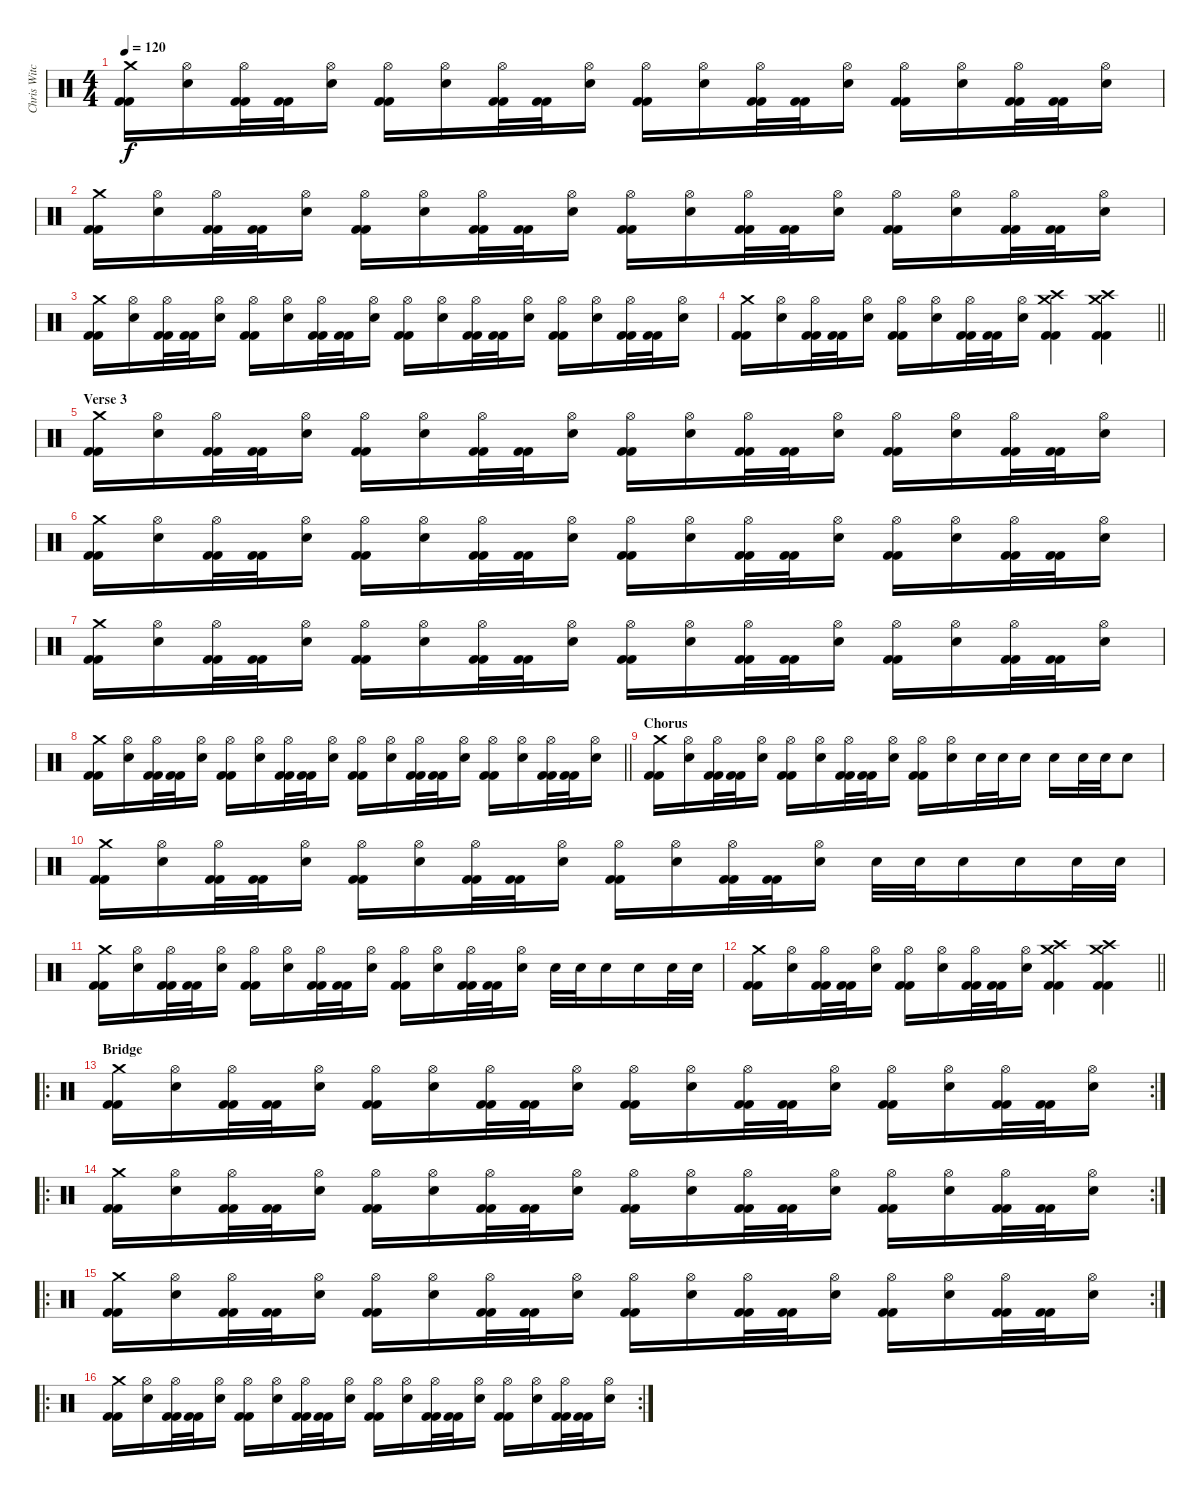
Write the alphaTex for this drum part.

\track ("Chris Witchhunter" "Chris Witc") {instrument percussion}
\staff {score}
\articulation defaults
\ts (4 4)
\tempo 120
\clef neutral
\ks c
("Crash medium (hit)" "Kick (hit) 2" "Kick (hit) 2").16{dy f} ("Hi-Hat (open)" "Snare (hit) 2").16 ("Hi-Hat (open)" "Kick (hit) 2" "Kick (hit) 2").32 ("Kick (hit) 2" "Kick (hit) 2").32 ("Hi-Hat (open)" "Snare (hit) 2").16 ("Hi-Hat (open)" "Kick (hit) 2" "Kick (hit) 2").16 ("Hi-Hat (open)" "Snare (hit) 2").16 ("Hi-Hat (open)" "Kick (hit) 2" "Kick (hit) 2").32 ("Kick (hit) 2" "Kick (hit) 2").32 ("Hi-Hat (open)" "Snare (hit) 2").16 ("Hi-Hat (open)" "Kick (hit) 2" "Kick (hit) 2").16 ("Hi-Hat (open)" "Snare (hit) 2").16 ("Hi-Hat (open)" "Kick (hit) 2" "Kick (hit) 2").32 ("Kick (hit) 2" "Kick (hit) 2").32 ("Hi-Hat (open)" "Snare (hit) 2").16 ("Hi-Hat (open)" "Kick (hit) 2" "Kick (hit) 2").16 ("Hi-Hat (open)" "Snare (hit) 2").16 ("Hi-Hat (open)" "Kick (hit) 2" "Kick (hit) 2").32 ("Kick (hit) 2" "Kick (hit) 2").32 ("Hi-Hat (open)" "Snare (hit) 2").16 |
("Crash medium (hit)" "Kick (hit) 2" "Kick (hit) 2").16 ("Hi-Hat (open)" "Snare (hit) 2").16 ("Hi-Hat (open)" "Kick (hit) 2" "Kick (hit) 2").32 ("Kick (hit) 2" "Kick (hit) 2").32 ("Hi-Hat (open)" "Snare (hit) 2").16 ("Hi-Hat (open)" "Kick (hit) 2" "Kick (hit) 2").16 ("Hi-Hat (open)" "Snare (hit) 2").16 ("Hi-Hat (open)" "Kick (hit) 2" "Kick (hit) 2").32 ("Kick (hit) 2" "Kick (hit) 2").32 ("Hi-Hat (open)" "Snare (hit) 2").16 ("Hi-Hat (open)" "Kick (hit) 2" "Kick (hit) 2").16 ("Hi-Hat (open)" "Snare (hit) 2").16 ("Hi-Hat (open)" "Kick (hit) 2" "Kick (hit) 2").32 ("Kick (hit) 2" "Kick (hit) 2").32 ("Hi-Hat (open)" "Snare (hit) 2").16 ("Hi-Hat (open)" "Kick (hit) 2" "Kick (hit) 2").16 ("Hi-Hat (open)" "Snare (hit) 2").16 ("Hi-Hat (open)" "Kick (hit) 2" "Kick (hit) 2").32 ("Kick (hit) 2" "Kick (hit) 2").32 ("Hi-Hat (open)" "Snare (hit) 2").16 |
("Crash medium (hit)" "Kick (hit) 2" "Kick (hit) 2").16 ("Hi-Hat (open)" "Snare (hit) 2").16 ("Hi-Hat (open)" "Kick (hit) 2" "Kick (hit) 2").32 ("Kick (hit) 2" "Kick (hit) 2").32 ("Hi-Hat (open)" "Snare (hit) 2").16 ("Hi-Hat (open)" "Kick (hit) 2" "Kick (hit) 2").16 ("Hi-Hat (open)" "Snare (hit) 2").16 ("Hi-Hat (open)" "Kick (hit) 2" "Kick (hit) 2").32 ("Kick (hit) 2" "Kick (hit) 2").32 ("Hi-Hat (open)" "Snare (hit) 2").16 ("Hi-Hat (open)" "Kick (hit) 2" "Kick (hit) 2").16 ("Hi-Hat (open)" "Snare (hit) 2").16 ("Hi-Hat (open)" "Kick (hit) 2" "Kick (hit) 2").32 ("Kick (hit) 2" "Kick (hit) 2").32 ("Hi-Hat (open)" "Snare (hit) 2").16 ("Hi-Hat (open)" "Kick (hit) 2" "Kick (hit) 2").16 ("Hi-Hat (open)" "Snare (hit) 2").16 ("Hi-Hat (open)" "Kick (hit) 2" "Kick (hit) 2").32 ("Kick (hit) 2" "Kick (hit) 2").32 ("Hi-Hat (open)" "Snare (hit) 2").16 |
\barLineRight lightlight
("Crash medium (hit)" "Kick (hit) 2" "Kick (hit) 2").16 ("Hi-Hat (open)" "Snare (hit) 2").16 ("Hi-Hat (open)" "Kick (hit) 2" "Kick (hit) 2").32 ("Kick (hit) 2" "Kick (hit) 2").32 ("Hi-Hat (open)" "Snare (hit) 2").16 ("Hi-Hat (open)" "Kick (hit) 2" "Kick (hit) 2").16 ("Hi-Hat (open)" "Snare (hit) 2").16 ("Hi-Hat (open)" "Kick (hit) 2" "Kick (hit) 2").32 ("Kick (hit) 2" "Kick (hit) 2").32 ("Hi-Hat (open)" "Snare (hit) 2").16 ("Crash high (hit)" "Crash medium (hit)" "Kick (hit) 2" "Kick (hit) 2").4 ("Crash high (hit)" "Crash medium (hit)" "Kick (hit) 2" "Kick (hit) 2").4 |
\section ("" "Verse 3")
("Crash medium (hit)" "Kick (hit) 2" "Kick (hit) 2").16 ("Hi-Hat (open)" "Snare (hit) 2").16 ("Hi-Hat (open)" "Kick (hit) 2" "Kick (hit) 2").32 ("Kick (hit) 2" "Kick (hit) 2").32 ("Hi-Hat (open)" "Snare (hit) 2").16 ("Hi-Hat (open)" "Kick (hit) 2" "Kick (hit) 2").16 ("Hi-Hat (open)" "Snare (hit) 2").16 ("Hi-Hat (open)" "Kick (hit) 2" "Kick (hit) 2").32 ("Kick (hit) 2" "Kick (hit) 2").32 ("Hi-Hat (open)" "Snare (hit) 2").16 ("Hi-Hat (open)" "Kick (hit) 2" "Kick (hit) 2").16 ("Hi-Hat (open)" "Snare (hit) 2").16 ("Hi-Hat (open)" "Kick (hit) 2" "Kick (hit) 2").32 ("Kick (hit) 2" "Kick (hit) 2").32 ("Hi-Hat (open)" "Snare (hit) 2").16 ("Hi-Hat (open)" "Kick (hit) 2" "Kick (hit) 2").16 ("Hi-Hat (open)" "Snare (hit) 2").16 ("Hi-Hat (open)" "Kick (hit) 2" "Kick (hit) 2").32 ("Kick (hit) 2" "Kick (hit) 2").32 ("Hi-Hat (open)" "Snare (hit) 2").16 |
("Crash medium (hit)" "Kick (hit) 2" "Kick (hit) 2").16 ("Hi-Hat (open)" "Snare (hit) 2").16 ("Hi-Hat (open)" "Kick (hit) 2" "Kick (hit) 2").32 ("Kick (hit) 2" "Kick (hit) 2").32 ("Hi-Hat (open)" "Snare (hit) 2").16 ("Hi-Hat (open)" "Kick (hit) 2" "Kick (hit) 2").16 ("Hi-Hat (open)" "Snare (hit) 2").16 ("Hi-Hat (open)" "Kick (hit) 2" "Kick (hit) 2").32 ("Kick (hit) 2" "Kick (hit) 2").32 ("Hi-Hat (open)" "Snare (hit) 2").16 ("Hi-Hat (open)" "Kick (hit) 2" "Kick (hit) 2").16 ("Hi-Hat (open)" "Snare (hit) 2").16 ("Hi-Hat (open)" "Kick (hit) 2" "Kick (hit) 2").32 ("Kick (hit) 2" "Kick (hit) 2").32 ("Hi-Hat (open)" "Snare (hit) 2").16 ("Hi-Hat (open)" "Kick (hit) 2" "Kick (hit) 2").16 ("Hi-Hat (open)" "Snare (hit) 2").16 ("Hi-Hat (open)" "Kick (hit) 2" "Kick (hit) 2").32 ("Kick (hit) 2" "Kick (hit) 2").32 ("Hi-Hat (open)" "Snare (hit) 2").16 |
("Crash medium (hit)" "Kick (hit) 2" "Kick (hit) 2").16 ("Hi-Hat (open)" "Snare (hit) 2").16 ("Hi-Hat (open)" "Kick (hit) 2" "Kick (hit) 2").32 ("Kick (hit) 2" "Kick (hit) 2").32 ("Hi-Hat (open)" "Snare (hit) 2").16 ("Hi-Hat (open)" "Kick (hit) 2" "Kick (hit) 2").16 ("Hi-Hat (open)" "Snare (hit) 2").16 ("Hi-Hat (open)" "Kick (hit) 2" "Kick (hit) 2").32 ("Kick (hit) 2" "Kick (hit) 2").32 ("Hi-Hat (open)" "Snare (hit) 2").16 ("Hi-Hat (open)" "Kick (hit) 2" "Kick (hit) 2").16 ("Hi-Hat (open)" "Snare (hit) 2").16 ("Hi-Hat (open)" "Kick (hit) 2" "Kick (hit) 2").32 ("Kick (hit) 2" "Kick (hit) 2").32 ("Hi-Hat (open)" "Snare (hit) 2").16 ("Hi-Hat (open)" "Kick (hit) 2" "Kick (hit) 2").16 ("Hi-Hat (open)" "Snare (hit) 2").16 ("Hi-Hat (open)" "Kick (hit) 2" "Kick (hit) 2").32 ("Kick (hit) 2" "Kick (hit) 2").32 ("Hi-Hat (open)" "Snare (hit) 2").16 |
\barLineRight lightlight
("Crash medium (hit)" "Kick (hit) 2" "Kick (hit) 2").16 ("Hi-Hat (open)" "Snare (hit) 2").16 ("Hi-Hat (open)" "Kick (hit) 2" "Kick (hit) 2").32 ("Kick (hit) 2" "Kick (hit) 2").32 ("Hi-Hat (open)" "Snare (hit) 2").16 ("Hi-Hat (open)" "Kick (hit) 2" "Kick (hit) 2").16 ("Hi-Hat (open)" "Snare (hit) 2").16 ("Hi-Hat (open)" "Kick (hit) 2" "Kick (hit) 2").32 ("Kick (hit) 2" "Kick (hit) 2").32 ("Hi-Hat (open)" "Snare (hit) 2").16 ("Hi-Hat (open)" "Kick (hit) 2" "Kick (hit) 2").16 ("Hi-Hat (open)" "Snare (hit) 2").16 ("Hi-Hat (open)" "Kick (hit) 2" "Kick (hit) 2").32 ("Kick (hit) 2" "Kick (hit) 2").32 ("Hi-Hat (open)" "Snare (hit) 2").16 ("Hi-Hat (open)" "Kick (hit) 2" "Kick (hit) 2").16 ("Hi-Hat (open)" "Snare (hit) 2").16 ("Hi-Hat (open)" "Kick (hit) 2" "Kick (hit) 2").32 ("Kick (hit) 2" "Kick (hit) 2").32 ("Hi-Hat (open)" "Snare (hit) 2").16 |
\section ("" "Chorus")
("Crash medium (hit)" "Kick (hit) 2" "Kick (hit) 2").16 ("Hi-Hat (open)" "Snare (hit) 2").16 ("Hi-Hat (open)" "Kick (hit) 2" "Kick (hit) 2").32 ("Kick (hit) 2" "Kick (hit) 2").32 ("Hi-Hat (open)" "Snare (hit) 2").16 ("Hi-Hat (open)" "Kick (hit) 2" "Kick (hit) 2").16 ("Hi-Hat (open)" "Snare (hit) 2").16 ("Hi-Hat (open)" "Kick (hit) 2" "Kick (hit) 2").32 ("Kick (hit) 2" "Kick (hit) 2").32 ("Hi-Hat (open)" "Snare (hit) 2").16 ("Hi-Hat (open)" "Kick (hit) 2" "Kick (hit) 2").16 ("Hi-Hat (open)" "Snare (hit) 2").16 "Snare (hit) 2".32 "Snare (hit) 2".32 "Snare (hit) 2".16 "Snare (hit) 2".16 "Snare (hit) 2".32 "Snare (hit) 2".32 "Snare (hit) 2".8 |
("Crash medium (hit)" "Kick (hit) 2" "Kick (hit) 2").16 ("Hi-Hat (open)" "Snare (hit) 2").16 ("Hi-Hat (open)" "Kick (hit) 2" "Kick (hit) 2").32 ("Kick (hit) 2" "Kick (hit) 2").32 ("Hi-Hat (open)" "Snare (hit) 2").16 ("Hi-Hat (open)" "Kick (hit) 2" "Kick (hit) 2").16 ("Hi-Hat (open)" "Snare (hit) 2").16 ("Hi-Hat (open)" "Kick (hit) 2" "Kick (hit) 2").32 ("Kick (hit) 2" "Kick (hit) 2").32 ("Hi-Hat (open)" "Snare (hit) 2").16 ("Hi-Hat (open)" "Kick (hit) 2" "Kick (hit) 2").16 ("Hi-Hat (open)" "Snare (hit) 2").16 ("Hi-Hat (open)" "Kick (hit) 2" "Kick (hit) 2").32 ("Kick (hit) 2" "Kick (hit) 2").32 ("Hi-Hat (open)" "Snare (hit) 2").16 "Snare (hit) 2".32 "Snare (hit) 2".32 "Snare (hit) 2".16 "Snare (hit) 2".16 "Snare (hit) 2".32 "Snare (hit) 2".32 |
("Crash medium (hit)" "Kick (hit) 2" "Kick (hit) 2").16 ("Hi-Hat (open)" "Snare (hit) 2").16 ("Hi-Hat (open)" "Kick (hit) 2" "Kick (hit) 2").32 ("Kick (hit) 2" "Kick (hit) 2").32 ("Hi-Hat (open)" "Snare (hit) 2").16 ("Hi-Hat (open)" "Kick (hit) 2" "Kick (hit) 2").16 ("Hi-Hat (open)" "Snare (hit) 2").16 ("Hi-Hat (open)" "Kick (hit) 2" "Kick (hit) 2").32 ("Kick (hit) 2" "Kick (hit) 2").32 ("Hi-Hat (open)" "Snare (hit) 2").16 ("Hi-Hat (open)" "Kick (hit) 2" "Kick (hit) 2").16 ("Hi-Hat (open)" "Snare (hit) 2").16 ("Hi-Hat (open)" "Kick (hit) 2" "Kick (hit) 2").32 ("Kick (hit) 2" "Kick (hit) 2").32 ("Hi-Hat (open)" "Snare (hit) 2").16 "Snare (hit) 2".32 "Snare (hit) 2".32 "Snare (hit) 2".16 "Snare (hit) 2".16 "Snare (hit) 2".32 "Snare (hit) 2".32 |
\barLineRight lightlight
("Crash medium (hit)" "Kick (hit) 2" "Kick (hit) 2").16 ("Hi-Hat (open)" "Snare (hit) 2").16 ("Hi-Hat (open)" "Kick (hit) 2" "Kick (hit) 2").32 ("Kick (hit) 2" "Kick (hit) 2").32 ("Hi-Hat (open)" "Snare (hit) 2").16 ("Hi-Hat (open)" "Kick (hit) 2" "Kick (hit) 2").16 ("Hi-Hat (open)" "Snare (hit) 2").16 ("Hi-Hat (open)" "Kick (hit) 2" "Kick (hit) 2").32 ("Kick (hit) 2" "Kick (hit) 2").32 ("Hi-Hat (open)" "Snare (hit) 2").16 ("Crash high (hit)" "Crash medium (hit)" "Kick (hit) 2" "Kick (hit) 2").4 ("Crash high (hit)" "Crash medium (hit)" "Kick (hit) 2" "Kick (hit) 2").4 |
\ro
\rc 2
\section ("" "Bridge")
("Crash medium (hit)" "Kick (hit) 2" "Kick (hit) 2").16 ("Hi-Hat (open)" "Snare (hit) 2").16 ("Hi-Hat (open)" "Kick (hit) 2" "Kick (hit) 2").32 ("Kick (hit) 2" "Kick (hit) 2").32 ("Hi-Hat (open)" "Snare (hit) 2").16 ("Hi-Hat (open)" "Kick (hit) 2" "Kick (hit) 2").16 ("Hi-Hat (open)" "Snare (hit) 2").16 ("Hi-Hat (open)" "Kick (hit) 2" "Kick (hit) 2").32 ("Kick (hit) 2" "Kick (hit) 2").32 ("Hi-Hat (open)" "Snare (hit) 2").16 ("Hi-Hat (open)" "Kick (hit) 2" "Kick (hit) 2").16 ("Hi-Hat (open)" "Snare (hit) 2").16 ("Hi-Hat (open)" "Kick (hit) 2" "Kick (hit) 2").32 ("Kick (hit) 2" "Kick (hit) 2").32 ("Hi-Hat (open)" "Snare (hit) 2").16 ("Hi-Hat (open)" "Kick (hit) 2" "Kick (hit) 2").16 ("Hi-Hat (open)" "Snare (hit) 2").16 ("Hi-Hat (open)" "Kick (hit) 2" "Kick (hit) 2").32 ("Kick (hit) 2" "Kick (hit) 2").32 ("Hi-Hat (open)" "Snare (hit) 2").16 |
\ro
\rc 2
("Crash medium (hit)" "Kick (hit) 2" "Kick (hit) 2").16 ("Hi-Hat (open)" "Snare (hit) 2").16 ("Hi-Hat (open)" "Kick (hit) 2" "Kick (hit) 2").32 ("Kick (hit) 2" "Kick (hit) 2").32 ("Hi-Hat (open)" "Snare (hit) 2").16 ("Hi-Hat (open)" "Kick (hit) 2" "Kick (hit) 2").16 ("Hi-Hat (open)" "Snare (hit) 2").16 ("Hi-Hat (open)" "Kick (hit) 2" "Kick (hit) 2").32 ("Kick (hit) 2" "Kick (hit) 2").32 ("Hi-Hat (open)" "Snare (hit) 2").16 ("Hi-Hat (open)" "Kick (hit) 2" "Kick (hit) 2").16 ("Hi-Hat (open)" "Snare (hit) 2").16 ("Hi-Hat (open)" "Kick (hit) 2" "Kick (hit) 2").32 ("Kick (hit) 2" "Kick (hit) 2").32 ("Hi-Hat (open)" "Snare (hit) 2").16 ("Hi-Hat (open)" "Kick (hit) 2" "Kick (hit) 2").16 ("Hi-Hat (open)" "Snare (hit) 2").16 ("Hi-Hat (open)" "Kick (hit) 2" "Kick (hit) 2").32 ("Kick (hit) 2" "Kick (hit) 2").32 ("Hi-Hat (open)" "Snare (hit) 2").16 |
\ro
\rc 2
("Crash medium (hit)" "Kick (hit) 2" "Kick (hit) 2").16 ("Hi-Hat (open)" "Snare (hit) 2").16 ("Hi-Hat (open)" "Kick (hit) 2" "Kick (hit) 2").32 ("Kick (hit) 2" "Kick (hit) 2").32 ("Hi-Hat (open)" "Snare (hit) 2").16 ("Hi-Hat (open)" "Kick (hit) 2" "Kick (hit) 2").16 ("Hi-Hat (open)" "Snare (hit) 2").16 ("Hi-Hat (open)" "Kick (hit) 2" "Kick (hit) 2").32 ("Kick (hit) 2" "Kick (hit) 2").32 ("Hi-Hat (open)" "Snare (hit) 2").16 ("Hi-Hat (open)" "Kick (hit) 2" "Kick (hit) 2").16 ("Hi-Hat (open)" "Snare (hit) 2").16 ("Hi-Hat (open)" "Kick (hit) 2" "Kick (hit) 2").32 ("Kick (hit) 2" "Kick (hit) 2").32 ("Hi-Hat (open)" "Snare (hit) 2").16 ("Hi-Hat (open)" "Kick (hit) 2" "Kick (hit) 2").16 ("Hi-Hat (open)" "Snare (hit) 2").16 ("Hi-Hat (open)" "Kick (hit) 2" "Kick (hit) 2").32 ("Kick (hit) 2" "Kick (hit) 2").32 ("Hi-Hat (open)" "Snare (hit) 2").16 |
\ro
\rc 2
("Crash medium (hit)" "Kick (hit) 2" "Kick (hit) 2").16 ("Hi-Hat (open)" "Snare (hit) 2").16 ("Hi-Hat (open)" "Kick (hit) 2" "Kick (hit) 2").32 ("Kick (hit) 2" "Kick (hit) 2").32 ("Hi-Hat (open)" "Snare (hit) 2").16 ("Hi-Hat (open)" "Kick (hit) 2" "Kick (hit) 2").16 ("Hi-Hat (open)" "Snare (hit) 2").16 ("Hi-Hat (open)" "Kick (hit) 2" "Kick (hit) 2").32 ("Kick (hit) 2" "Kick (hit) 2").32 ("Hi-Hat (open)" "Snare (hit) 2").16 ("Hi-Hat (open)" "Kick (hit) 2" "Kick (hit) 2").16 ("Hi-Hat (open)" "Snare (hit) 2").16 ("Hi-Hat (open)" "Kick (hit) 2" "Kick (hit) 2").32 ("Kick (hit) 2" "Kick (hit) 2").32 ("Hi-Hat (open)" "Snare (hit) 2").16 ("Hi-Hat (open)" "Kick (hit) 2" "Kick (hit) 2").16 ("Hi-Hat (open)" "Snare (hit) 2").16 ("Hi-Hat (open)" "Kick (hit) 2" "Kick (hit) 2").32 ("Kick (hit) 2" "Kick (hit) 2").32 ("Hi-Hat (open)" "Snare (hit) 2").16
